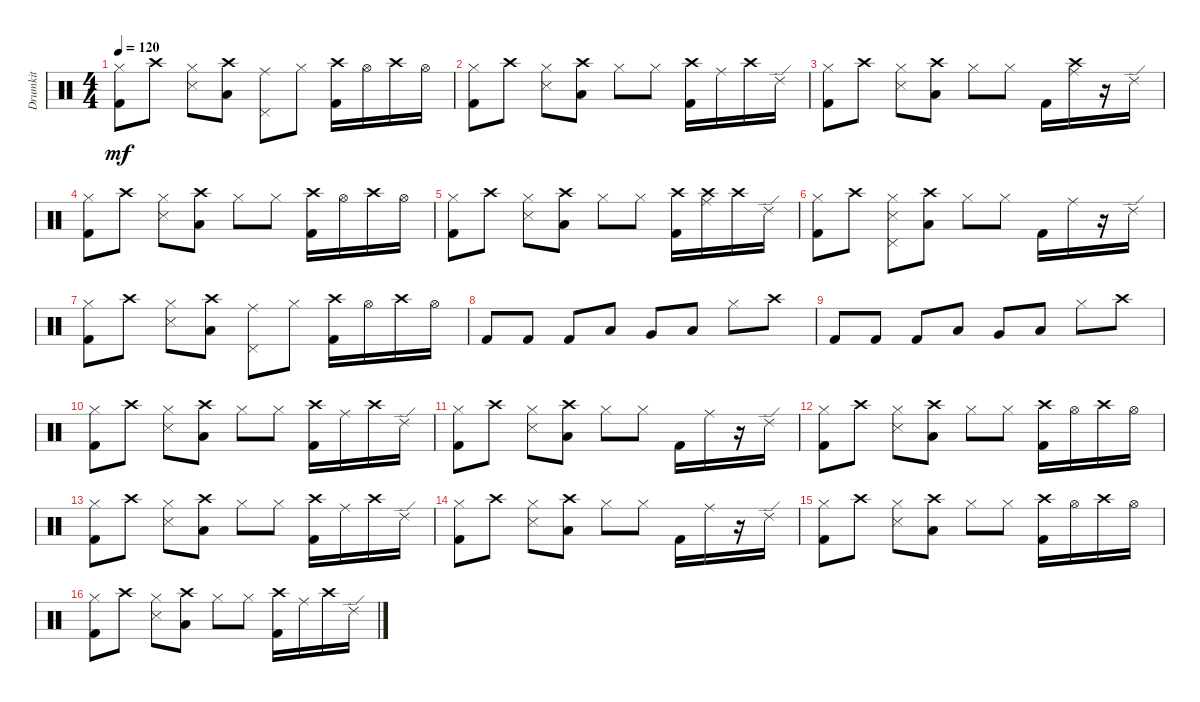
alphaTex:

\track ("Drumkit" "Drumkit") {instrument percussion}
\staff {score}
\articulation defaults
\ts (4 4)
\tempo 120
\clef neutral
\ks c
("Hi-Hat (closed)" "Kick (hit) 2").8{dy mf} "Crash high (hit)".8 ("Hi-Hat (closed)" "Snare (side stick) 3").8 ("Crash high (hit)" "Low Floor Tom (hit)").8 ("Ride (middle)" "Pedal Hi-Hat (hit)").8 "Hi-Hat (closed)".8 ("Crash high (hit)" "Kick (hit) 2").16 "Hi-Hat (open)".16 "Crash high (hit)".16 "Hi-Hat (open)".16 |
("Hi-Hat (closed)" "Kick (hit) 2").8 "Crash high (hit)".8 ("Hi-Hat (closed)" "Snare (side stick) 3").8 ("Crash high (hit)" "Low Floor Tom (hit)").8 "Hi-Hat (closed)".8 "Hi-Hat (closed)".8 ("Crash high (hit)" "Kick (hit) 2").16 "Ride (middle)".16 "Crash high (hit)".16 "Ride (edge) 2".16 |
("Hi-Hat (closed)" "Kick (hit) 2").8 "Crash high (hit)".8 ("Hi-Hat (closed)" "Snare (side stick) 3").8 ("Crash high (hit)" "Low Floor Tom (hit)").8 "Hi-Hat (closed)".8 "Hi-Hat (closed)".8 "Kick (hit) 2".16 ("Ride (middle)" "Crash high (hit)").16 r.16 "Ride (edge) 2".16 |
("Hi-Hat (closed)" "Kick (hit) 2").8 "Crash high (hit)".8 ("Hi-Hat (closed)" "Snare (side stick) 3").8 ("Crash high (hit)" "Low Floor Tom (hit)").8 "Hi-Hat (closed)".8 "Hi-Hat (closed)".8 ("Crash high (hit)" "Kick (hit) 2").16 "Hi-Hat (open)".16 "Crash high (hit)".16 "Hi-Hat (open)".16 |
("Hi-Hat (closed)" "Kick (hit) 2").8 "Crash high (hit)".8 ("Hi-Hat (closed)" "Snare (side stick) 3").8 ("Crash high (hit)" "Low Floor Tom (hit)").8 "Hi-Hat (closed)".8 "Hi-Hat (closed)".8 ("Crash high (hit)" "Kick (hit) 2").16 ("Ride (middle)" "Crash high (hit)").16 "Crash high (hit)".16 "Ride (edge) 2".16 |
("Hi-Hat (closed)" "Kick (hit) 2").8 "Crash high (hit)".8 ("Hi-Hat (closed)" "Snare (side stick) 3" "Pedal Hi-Hat (hit)").8 ("Crash high (hit)" "Low Floor Tom (hit)").8 "Hi-Hat (closed)".8 "Hi-Hat (closed)".8 "Kick (hit) 2".16 "Ride (middle)".16 r.16 "Ride (edge) 2".16 |
("Hi-Hat (closed)" "Kick (hit) 2").8 "Crash high (hit)".8 ("Hi-Hat (closed)" "Snare (side stick) 3").8 ("Crash high (hit)" "Low Floor Tom (hit)").8 ("Ride (middle)" "Pedal Hi-Hat (hit)").8 "Hi-Hat (closed)".8 ("Crash high (hit)" "Kick (hit) 2").16 "Hi-Hat (open)".16 "Crash high (hit)".16 "Hi-Hat (open)".16 |
"Kick (hit) 2".8 "Kick (hit) 2".8 "Kick (hit) 2".8 "Low Floor Tom (hit)".8 "Very Low Tom (hit)".8 "Low Tom (hit)".8 "Hi-Hat (closed)".8 "Crash high (hit)".8 |
"Kick (hit) 2".8 "Kick (hit) 2".8 "Kick (hit) 2".8 "Low Floor Tom (hit)".8 "Very Low Tom (hit)".8 "Low Tom (hit)".8 "Hi-Hat (closed)".8 "Crash high (hit)".8 |
("Hi-Hat (closed)" "Kick (hit) 2").8 "Crash high (hit)".8 ("Hi-Hat (closed)" "Snare (side stick) 3").8 ("Crash high (hit)" "Low Floor Tom (hit)").8 "Hi-Hat (closed)".8 "Hi-Hat (closed)".8 ("Crash high (hit)" "Kick (hit) 2").16 "Ride (middle)".16 "Crash high (hit)".16 "Ride (edge) 2".16 |
("Hi-Hat (closed)" "Kick (hit) 2").8 "Crash high (hit)".8 ("Hi-Hat (closed)" "Snare (side stick) 3").8 ("Crash high (hit)" "Low Floor Tom (hit)").8 "Hi-Hat (closed)".8 "Hi-Hat (closed)".8 "Kick (hit) 2".16 "Ride (middle)".16 r.16 "Ride (edge) 2".16 |
("Hi-Hat (closed)" "Kick (hit) 2").8 "Crash high (hit)".8 ("Hi-Hat (closed)" "Snare (side stick) 3").8 ("Crash high (hit)" "Low Floor Tom (hit)").8 "Hi-Hat (closed)".8 "Hi-Hat (closed)".8 ("Crash high (hit)" "Kick (hit) 2").16 "Hi-Hat (open)".16 "Crash high (hit)".16 "Hi-Hat (open)".16 |
("Hi-Hat (closed)" "Kick (hit) 2").8 "Crash high (hit)".8 ("Hi-Hat (closed)" "Snare (side stick) 3").8 ("Crash high (hit)" "Low Floor Tom (hit)").8 "Hi-Hat (closed)".8 "Hi-Hat (closed)".8 ("Crash high (hit)" "Kick (hit) 2").16 "Ride (middle)".16 "Crash high (hit)".16 "Ride (edge) 2".16 |
("Hi-Hat (closed)" "Kick (hit) 2").8 "Crash high (hit)".8 ("Hi-Hat (closed)" "Snare (side stick) 3").8 ("Crash high (hit)" "Low Floor Tom (hit)").8 "Hi-Hat (closed)".8 "Hi-Hat (closed)".8 "Kick (hit) 2".16 "Ride (middle)".16 r.16 "Ride (edge) 2".16 |
("Hi-Hat (closed)" "Kick (hit) 2").8 "Crash high (hit)".8 ("Hi-Hat (closed)" "Snare (side stick) 3").8 ("Crash high (hit)" "Low Floor Tom (hit)").8 "Hi-Hat (closed)".8 "Hi-Hat (closed)".8 ("Crash high (hit)" "Kick (hit) 2").16 "Hi-Hat (open)".16 "Crash high (hit)".16 "Hi-Hat (open)".16 |
("Hi-Hat (closed)" "Kick (hit) 2").8 "Crash high (hit)".8 ("Hi-Hat (closed)" "Snare (side stick) 3").8 ("Crash high (hit)" "Low Floor Tom (hit)").8 "Hi-Hat (closed)".8 "Hi-Hat (closed)".8 ("Crash high (hit)" "Kick (hit) 2").16 "Ride (middle)".16 "Crash high (hit)".16 "Ride (edge) 2".16
